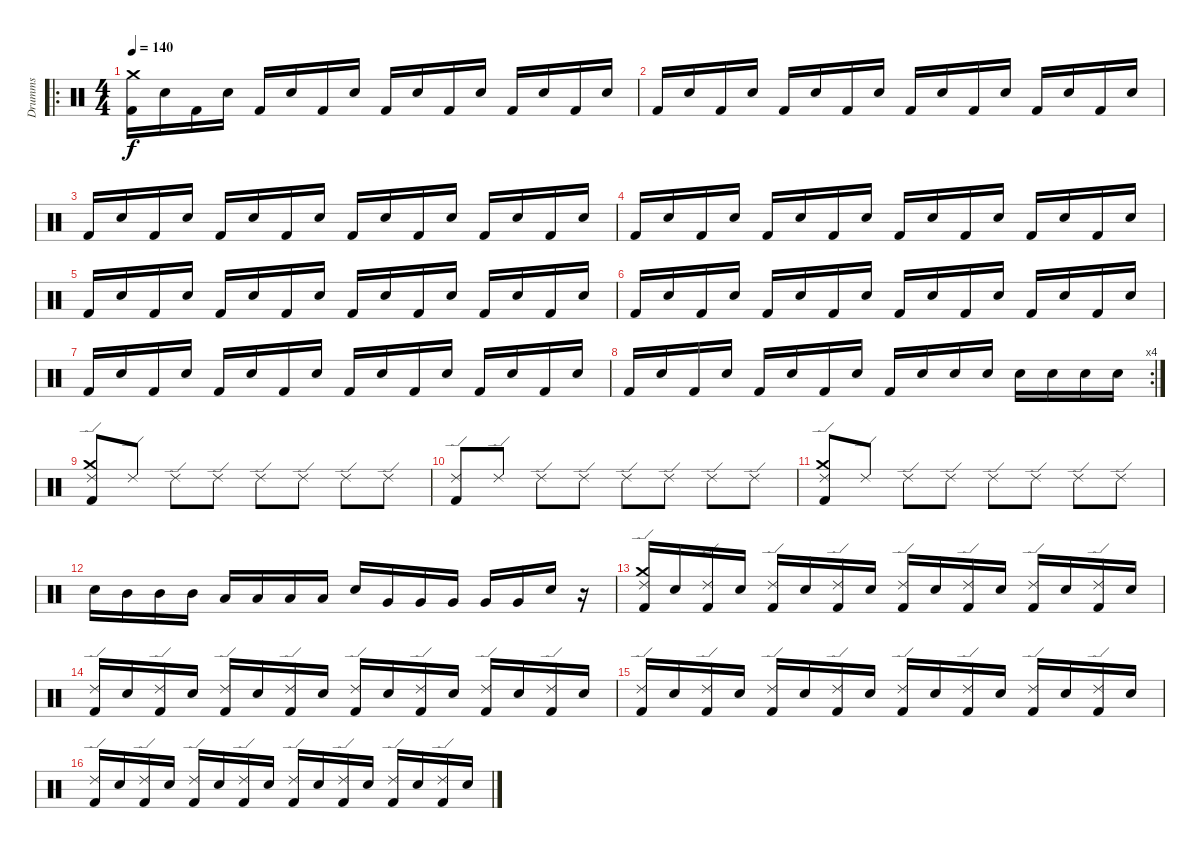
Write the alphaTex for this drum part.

\track ("Drumms" "Drumms") {instrument percussion}
\staff {score}
\articulation defaults
\ro
\ts (4 4)
\tempo 140
\clef neutral
\ks c
("Kick (hit) 2" "Crash medium (hit)").16{dy f} "Snare (hit) 2".16 "Kick (hit) 2".16 "Snare (hit) 2".16 "Kick (hit) 2".16 "Snare (hit) 2".16 "Kick (hit) 2".16 "Snare (hit) 2".16 "Kick (hit) 2".16 "Snare (hit) 2".16 "Kick (hit) 2".16 "Snare (hit) 2".16 "Kick (hit) 2".16 "Snare (hit) 2".16 "Kick (hit) 2".16 "Snare (hit) 2".16 |
"Kick (hit) 2".16 "Snare (hit) 2".16 "Kick (hit) 2".16 "Snare (hit) 2".16 "Kick (hit) 2".16 "Snare (hit) 2".16 "Kick (hit) 2".16 "Snare (hit) 2".16 "Kick (hit) 2".16 "Snare (hit) 2".16 "Kick (hit) 2".16 "Snare (hit) 2".16 "Kick (hit) 2".16 "Snare (hit) 2".16 "Kick (hit) 2".16 "Snare (hit) 2".16 |
"Kick (hit) 2".16 "Snare (hit) 2".16 "Kick (hit) 2".16 "Snare (hit) 2".16 "Kick (hit) 2".16 "Snare (hit) 2".16 "Kick (hit) 2".16 "Snare (hit) 2".16 "Kick (hit) 2".16 "Snare (hit) 2".16 "Kick (hit) 2".16 "Snare (hit) 2".16 "Kick (hit) 2".16 "Snare (hit) 2".16 "Kick (hit) 2".16 "Snare (hit) 2".16 |
"Kick (hit) 2".16 "Snare (hit) 2".16 "Kick (hit) 2".16 "Snare (hit) 2".16 "Kick (hit) 2".16 "Snare (hit) 2".16 "Kick (hit) 2".16 "Snare (hit) 2".16 "Kick (hit) 2".16 "Snare (hit) 2".16 "Kick (hit) 2".16 "Snare (hit) 2".16 "Kick (hit) 2".16 "Snare (hit) 2".16 "Kick (hit) 2".16 "Snare (hit) 2".16 |
"Kick (hit) 2".16 "Snare (hit) 2".16 "Kick (hit) 2".16 "Snare (hit) 2".16 "Kick (hit) 2".16 "Snare (hit) 2".16 "Kick (hit) 2".16 "Snare (hit) 2".16 "Kick (hit) 2".16 "Snare (hit) 2".16 "Kick (hit) 2".16 "Snare (hit) 2".16 "Kick (hit) 2".16 "Snare (hit) 2".16 "Kick (hit) 2".16 "Snare (hit) 2".16 |
"Kick (hit) 2".16 "Snare (hit) 2".16 "Kick (hit) 2".16 "Snare (hit) 2".16 "Kick (hit) 2".16 "Snare (hit) 2".16 "Kick (hit) 2".16 "Snare (hit) 2".16 "Kick (hit) 2".16 "Snare (hit) 2".16 "Kick (hit) 2".16 "Snare (hit) 2".16 "Kick (hit) 2".16 "Snare (hit) 2".16 "Kick (hit) 2".16 "Snare (hit) 2".16 |
"Kick (hit) 2".16 "Snare (hit) 2".16 "Kick (hit) 2".16 "Snare (hit) 2".16 "Kick (hit) 2".16 "Snare (hit) 2".16 "Kick (hit) 2".16 "Snare (hit) 2".16 "Kick (hit) 2".16 "Snare (hit) 2".16 "Kick (hit) 2".16 "Snare (hit) 2".16 "Kick (hit) 2".16 "Snare (hit) 2".16 "Kick (hit) 2".16 "Snare (hit) 2".16 |
\rc 4 "Kick (hit) 2".16 "Snare (hit) 2".16 "Kick (hit) 2".16 "Snare (hit) 2".16 "Kick (hit) 2".16 "Snare (hit) 2".16 "Kick (hit) 2".16 "Snare (hit) 2".16 "Kick (hit) 2".16 "Snare (hit) 2".16 "Snare (hit) 2".16 "Snare (hit) 2".16 "Snare (hit) 2".16 "Snare (hit) 2".16 "Snare (hit) 2".16 "Snare (hit) 2".16
|
("Ride (edge) 2" "Crash medium (hit)" "Kick (hit) 2").8 "Ride (edge) 2".8 "Ride (edge) 2".8 "Ride (edge) 2".8 "Ride (edge) 2".8 "Ride (edge) 2".8 "Ride (edge) 2".8 "Ride (edge) 2".8 |
("Ride (edge) 2" "Kick (hit) 2").8 "Ride (edge) 2".8 "Ride (edge) 2".8 "Ride (edge) 2".8 "Ride (edge) 2".8 "Ride (edge) 2".8 "Ride (edge) 2".8 "Ride (edge) 2".8 |
("Ride (edge) 2" "Crash medium (hit)" "Kick (hit) 2").8 "Ride (edge) 2".8 "Ride (edge) 2".8 "Ride (edge) 2".8 "Ride (edge) 2".8 "Ride (edge) 2".8 "Ride (edge) 2".8 "Ride (edge) 2".8 |
"Snare (hit) 2".16 "Mid Tom (hit)".16 "Mid Tom (hit)".16 "Mid Tom (hit)".16 "Low Tom (hit)".16 "Low Tom (hit)".16 "Low Tom (hit)".16 "Low Tom (hit)".16 "Snare (hit) 2".16 "Very Low Tom (hit)".16 "Very Low Tom (hit)".16 "Very Low Tom (hit)".16 "Very Low Tom (hit)".16 "Very Low Tom (hit)".16 "Snare (hit) 2".16 r.16 |
("Kick (hit) 2" "Ride (edge) 2" "Crash medium (hit)").16 "Snare (hit) 2".16 ("Kick (hit) 2" "Ride (edge) 2").16 "Snare (hit) 2".16 ("Kick (hit) 2" "Ride (edge) 2").16 "Snare (hit) 2".16 ("Kick (hit) 2" "Ride (edge) 2").16 "Snare (hit) 2".16 ("Kick (hit) 2" "Ride (edge) 2").16 "Snare (hit) 2".16 ("Kick (hit) 2" "Ride (edge) 2").16 "Snare (hit) 2".16 ("Kick (hit) 2" "Ride (edge) 2").16 "Snare (hit) 2".16 ("Kick (hit) 2" "Ride (edge) 2").16 "Snare (hit) 2".16 |
("Kick (hit) 2" "Ride (edge) 2").16 "Snare (hit) 2".16 ("Kick (hit) 2" "Ride (edge) 2").16 "Snare (hit) 2".16 ("Kick (hit) 2" "Ride (edge) 2").16 "Snare (hit) 2".16 ("Kick (hit) 2" "Ride (edge) 2").16 "Snare (hit) 2".16 ("Kick (hit) 2" "Ride (edge) 2").16 "Snare (hit) 2".16 ("Kick (hit) 2" "Ride (edge) 2").16 "Snare (hit) 2".16 ("Kick (hit) 2" "Ride (edge) 2").16 "Snare (hit) 2".16 ("Kick (hit) 2" "Ride (edge) 2").16 "Snare (hit) 2".16 |
("Kick (hit) 2" "Ride (edge) 2").16 "Snare (hit) 2".16 ("Kick (hit) 2" "Ride (edge) 2").16 "Snare (hit) 2".16 ("Kick (hit) 2" "Ride (edge) 2").16 "Snare (hit) 2".16 ("Kick (hit) 2" "Ride (edge) 2").16 "Snare (hit) 2".16 ("Kick (hit) 2" "Ride (edge) 2").16 "Snare (hit) 2".16 ("Kick (hit) 2" "Ride (edge) 2").16 "Snare (hit) 2".16 ("Kick (hit) 2" "Ride (edge) 2").16 "Snare (hit) 2".16 ("Kick (hit) 2" "Ride (edge) 2").16 "Snare (hit) 2".16 |
("Kick (hit) 2" "Ride (edge) 2").16 "Snare (hit) 2".16 ("Kick (hit) 2" "Ride (edge) 2").16 "Snare (hit) 2".16 ("Kick (hit) 2" "Ride (edge) 2").16 "Snare (hit) 2".16 ("Kick (hit) 2" "Ride (edge) 2").16 "Snare (hit) 2".16 ("Kick (hit) 2" "Ride (edge) 2").16 "Snare (hit) 2".16 ("Kick (hit) 2" "Ride (edge) 2").16 "Snare (hit) 2".16 ("Kick (hit) 2" "Ride (edge) 2").16 "Snare (hit) 2".16 ("Kick (hit) 2" "Ride (edge) 2").16 "Snare (hit) 2".16
